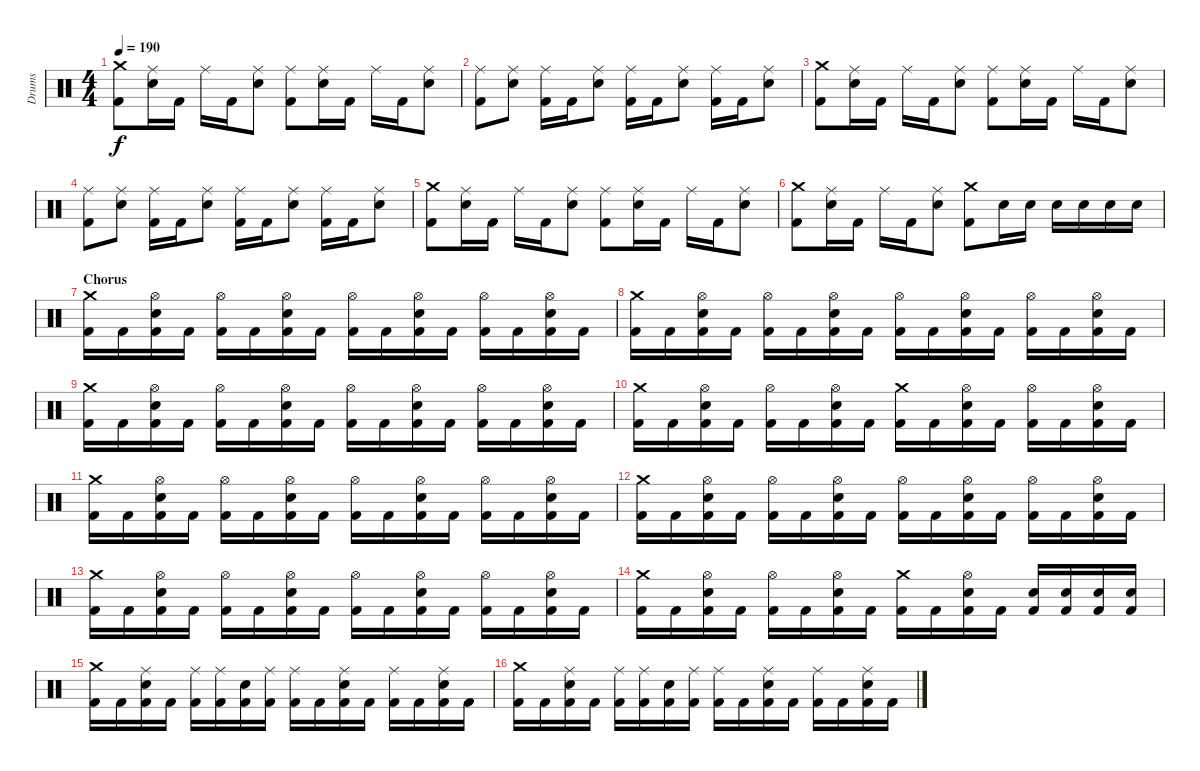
\track ("Drums" "Drums") {instrument percussion}
\staff {score}
\articulation defaults
\ts (4 4)
\tempo 190
\clef neutral
\ks c
("Crash medium (hit)" "Kick (hit) 2").8{dy f} ("Ride (middle)" "Snare (hit) 2").16 "Kick (hit) 2".16 "Ride (middle)".16 "Kick (hit) 2".16 ("Ride (middle)" "Snare (hit) 2").8 ("Ride (middle)" "Kick (hit) 2").8 ("Ride (middle)" "Snare (hit) 2").16 "Kick (hit) 2".16 "Ride (middle)".16 "Kick (hit) 2".16 ("Ride (middle)" "Snare (hit) 2").8 |
("Ride (middle)" "Kick (hit) 2").8 ("Ride (middle)" "Snare (hit) 2").8 ("Ride (middle)" "Kick (hit) 2").16 "Kick (hit) 2".16 ("Ride (middle)" "Snare (hit) 2").8 ("Ride (middle)" "Kick (hit) 2").16 "Kick (hit) 2".16 ("Ride (middle)" "Snare (hit) 2").8 ("Ride (middle)" "Kick (hit) 2").16 "Kick (hit) 2".16 ("Ride (middle)" "Snare (hit) 2").8 |
("Crash medium (hit)" "Kick (hit) 2").8 ("Ride (middle)" "Snare (hit) 2").16 "Kick (hit) 2".16 "Ride (middle)".16 "Kick (hit) 2".16 ("Ride (middle)" "Snare (hit) 2").8 ("Ride (middle)" "Kick (hit) 2").8 ("Ride (middle)" "Snare (hit) 2").16 "Kick (hit) 2".16 "Ride (middle)".16 "Kick (hit) 2".16 ("Ride (middle)" "Snare (hit) 2").8 |
("Ride (middle)" "Kick (hit) 2").8 ("Ride (middle)" "Snare (hit) 2").8 ("Ride (middle)" "Kick (hit) 2").16 "Kick (hit) 2".16 ("Ride (middle)" "Snare (hit) 2").8 ("Ride (middle)" "Kick (hit) 2").16 "Kick (hit) 2".16 ("Ride (middle)" "Snare (hit) 2").8 ("Ride (middle)" "Kick (hit) 2").16 "Kick (hit) 2".16 ("Ride (middle)" "Snare (hit) 2").8 |
("Crash medium (hit)" "Kick (hit) 2").8 ("Ride (middle)" "Snare (hit) 2").16 "Kick (hit) 2".16 "Ride (middle)".16 "Kick (hit) 2".16 ("Ride (middle)" "Snare (hit) 2").8 ("Ride (middle)" "Kick (hit) 2").8 ("Ride (middle)" "Snare (hit) 2").16 "Kick (hit) 2".16 "Ride (middle)".16 "Kick (hit) 2".16 ("Ride (middle)" "Snare (hit) 2").8 |
("Crash medium (hit)" "Kick (hit) 2").8 ("Ride (middle)" "Snare (hit) 2").16 "Kick (hit) 2".16 "Ride (middle)".16 "Kick (hit) 2".16 ("Ride (middle)" "Snare (hit) 2").8 ("Crash medium (hit)" "Kick (hit) 2").8 "Snare (hit) 2".16 "Snare (hit) 2".16 "Snare (hit) 2".16 "Snare (hit) 2".16 "Snare (hit) 2".16 "Snare (hit) 2".16 |
\section ("" "Chorus")
("Crash medium (hit)" "Kick (hit) 2").16 "Kick (hit) 2".16 ("Hi-Hat (open)" "Snare (hit) 2" "Kick (hit) 2").16 "Kick (hit) 2".16 ("Hi-Hat (open)" "Kick (hit) 2").16 "Kick (hit) 2".16 ("Hi-Hat (open)" "Snare (hit) 2" "Kick (hit) 2").16 "Kick (hit) 2".16 ("Hi-Hat (open)" "Kick (hit) 2").16 "Kick (hit) 2".16 ("Hi-Hat (open)" "Snare (hit) 2" "Kick (hit) 2").16 "Kick (hit) 2".16 ("Hi-Hat (open)" "Kick (hit) 2").16 "Kick (hit) 2".16 ("Hi-Hat (open)" "Snare (hit) 2" "Kick (hit) 2").16 "Kick (hit) 2".16 |
("Crash medium (hit)" "Kick (hit) 2").16 "Kick (hit) 2".16 ("Hi-Hat (open)" "Snare (hit) 2" "Kick (hit) 2").16 "Kick (hit) 2".16 ("Hi-Hat (open)" "Kick (hit) 2").16 "Kick (hit) 2".16 ("Hi-Hat (open)" "Snare (hit) 2" "Kick (hit) 2").16 "Kick (hit) 2".16 ("Hi-Hat (open)" "Kick (hit) 2").16 "Kick (hit) 2".16 ("Hi-Hat (open)" "Snare (hit) 2" "Kick (hit) 2").16 "Kick (hit) 2".16 ("Hi-Hat (open)" "Kick (hit) 2").16 "Kick (hit) 2".16 ("Hi-Hat (open)" "Snare (hit) 2" "Kick (hit) 2").16 "Kick (hit) 2".16 |
("Crash medium (hit)" "Kick (hit) 2").16 "Kick (hit) 2".16 ("Hi-Hat (open)" "Snare (hit) 2" "Kick (hit) 2").16 "Kick (hit) 2".16 ("Hi-Hat (open)" "Kick (hit) 2").16 "Kick (hit) 2".16 ("Hi-Hat (open)" "Snare (hit) 2" "Kick (hit) 2").16 "Kick (hit) 2".16 ("Hi-Hat (open)" "Kick (hit) 2").16 "Kick (hit) 2".16 ("Hi-Hat (open)" "Snare (hit) 2" "Kick (hit) 2").16 "Kick (hit) 2".16 ("Hi-Hat (open)" "Kick (hit) 2").16 "Kick (hit) 2".16 ("Hi-Hat (open)" "Snare (hit) 2" "Kick (hit) 2").16 "Kick (hit) 2".16 |
("Crash medium (hit)" "Kick (hit) 2").16 "Kick (hit) 2".16 ("Hi-Hat (open)" "Snare (hit) 2" "Kick (hit) 2").16 "Kick (hit) 2".16 ("Hi-Hat (open)" "Kick (hit) 2").16 "Kick (hit) 2".16 ("Hi-Hat (open)" "Snare (hit) 2" "Kick (hit) 2").16 "Kick (hit) 2".16 ("Crash medium (hit)" "Kick (hit) 2").16 "Kick (hit) 2".16 ("Hi-Hat (open)" "Snare (hit) 2" "Kick (hit) 2").16 "Kick (hit) 2".16 ("Hi-Hat (open)" "Kick (hit) 2").16 "Kick (hit) 2".16 ("Hi-Hat (open)" "Snare (hit) 2" "Kick (hit) 2").16 "Kick (hit) 2".16 |
("Crash medium (hit)" "Kick (hit) 2").16 "Kick (hit) 2".16 ("Hi-Hat (open)" "Snare (hit) 2" "Kick (hit) 2").16 "Kick (hit) 2".16 ("Hi-Hat (open)" "Kick (hit) 2").16 "Kick (hit) 2".16 ("Hi-Hat (open)" "Snare (hit) 2" "Kick (hit) 2").16 "Kick (hit) 2".16 ("Hi-Hat (open)" "Kick (hit) 2").16 "Kick (hit) 2".16 ("Hi-Hat (open)" "Snare (hit) 2" "Kick (hit) 2").16 "Kick (hit) 2".16 ("Hi-Hat (open)" "Kick (hit) 2").16 "Kick (hit) 2".16 ("Hi-Hat (open)" "Snare (hit) 2" "Kick (hit) 2").16 "Kick (hit) 2".16 |
("Crash medium (hit)" "Kick (hit) 2").16 "Kick (hit) 2".16 ("Hi-Hat (open)" "Snare (hit) 2" "Kick (hit) 2").16 "Kick (hit) 2".16 ("Hi-Hat (open)" "Kick (hit) 2").16 "Kick (hit) 2".16 ("Hi-Hat (open)" "Snare (hit) 2" "Kick (hit) 2").16 "Kick (hit) 2".16 ("Hi-Hat (open)" "Kick (hit) 2").16 "Kick (hit) 2".16 ("Hi-Hat (open)" "Snare (hit) 2" "Kick (hit) 2").16 "Kick (hit) 2".16 ("Hi-Hat (open)" "Kick (hit) 2").16 "Kick (hit) 2".16 ("Hi-Hat (open)" "Snare (hit) 2" "Kick (hit) 2").16 "Kick (hit) 2".16 |
("Crash medium (hit)" "Kick (hit) 2").16 "Kick (hit) 2".16 ("Hi-Hat (open)" "Snare (hit) 2" "Kick (hit) 2").16 "Kick (hit) 2".16 ("Hi-Hat (open)" "Kick (hit) 2").16 "Kick (hit) 2".16 ("Hi-Hat (open)" "Snare (hit) 2" "Kick (hit) 2").16 "Kick (hit) 2".16 ("Hi-Hat (open)" "Kick (hit) 2").16 "Kick (hit) 2".16 ("Hi-Hat (open)" "Snare (hit) 2" "Kick (hit) 2").16 "Kick (hit) 2".16 ("Hi-Hat (open)" "Kick (hit) 2").16 "Kick (hit) 2".16 ("Hi-Hat (open)" "Snare (hit) 2" "Kick (hit) 2").16 "Kick (hit) 2".16 |
("Crash medium (hit)" "Kick (hit) 2").16 "Kick (hit) 2".16 ("Hi-Hat (open)" "Snare (hit) 2" "Kick (hit) 2").16 "Kick (hit) 2".16 ("Hi-Hat (open)" "Kick (hit) 2").16 "Kick (hit) 2".16 ("Hi-Hat (open)" "Snare (hit) 2" "Kick (hit) 2").16 "Kick (hit) 2".16 ("Crash medium (hit)" "Kick (hit) 2").16 "Kick (hit) 2".16 ("Hi-Hat (open)" "Snare (hit) 2" "Kick (hit) 2").16 "Kick (hit) 2".16 ("Snare (hit) 2" "Kick (hit) 2").16 ("Snare (hit) 2" "Kick (hit) 2").16 ("Snare (hit) 2" "Kick (hit) 2").16 ("Snare (hit) 2" "Kick (hit) 2").16 |
("Crash medium (hit)" "Kick (hit) 2").16 "Kick (hit) 2".16 ("Ride (middle)" "Snare (hit) 2" "Kick (hit) 2").16 "Kick (hit) 2".16 ("Ride (middle)" "Kick (hit) 2").16 ("Ride (middle)" "Kick (hit) 2").16 ("Snare (hit) 2" "Kick (hit) 2").16 ("Ride (middle)" "Kick (hit) 2").16 ("Ride (middle)" "Kick (hit) 2").16 "Kick (hit) 2".16 ("Ride (middle)" "Snare (hit) 2" "Kick (hit) 2").16 "Kick (hit) 2".16 ("Ride (middle)" "Kick (hit) 2").16 "Kick (hit) 2".16 ("Ride (middle)" "Snare (hit) 2" "Kick (hit) 2").16 "Kick (hit) 2".16 |
("Crash medium (hit)" "Kick (hit) 2").16 "Kick (hit) 2".16 ("Ride (middle)" "Snare (hit) 2" "Kick (hit) 2").16 "Kick (hit) 2".16 ("Ride (middle)" "Kick (hit) 2").16 ("Ride (middle)" "Kick (hit) 2").16 ("Snare (hit) 2" "Kick (hit) 2").16 ("Ride (middle)" "Kick (hit) 2").16 ("Ride (middle)" "Kick (hit) 2").16 "Kick (hit) 2".16 ("Ride (middle)" "Snare (hit) 2" "Kick (hit) 2").16 "Kick (hit) 2".16 ("Ride (middle)" "Kick (hit) 2").16 "Kick (hit) 2".16 ("Ride (middle)" "Snare (hit) 2" "Kick (hit) 2").16 "Kick (hit) 2".16
